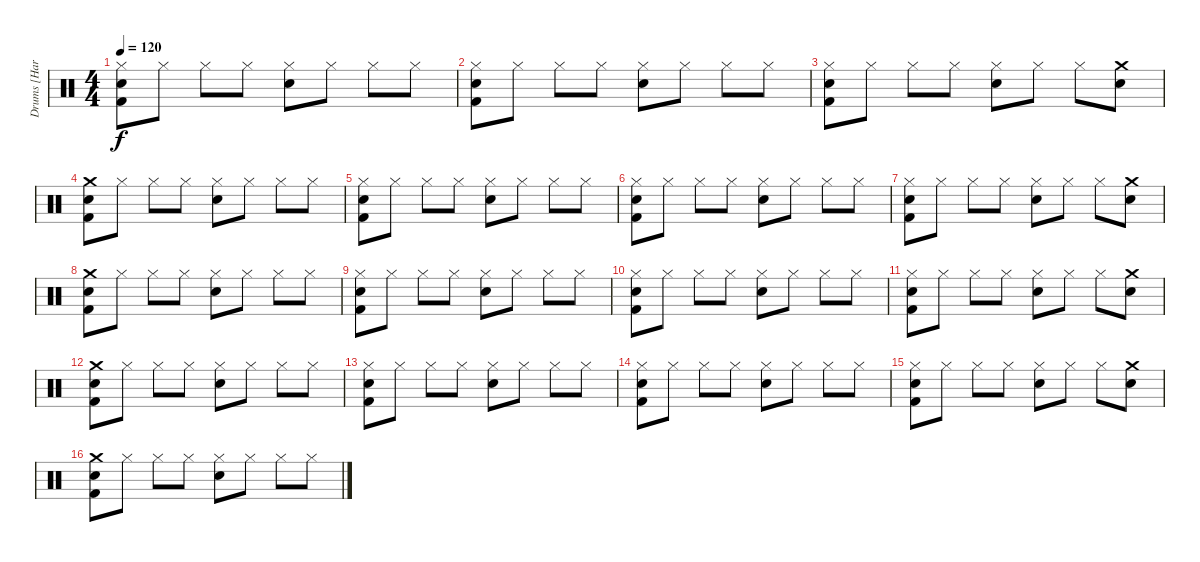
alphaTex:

\track ("Drums [Harry]" "Drums [Har") {instrument percussion}
\staff {score}
\articulation defaults
\ts (4 4)
\tempo 120
\clef neutral
\ks c
("Snare (hit) 2" "Hi-Hat (closed)" "Kick (hit) 2").8{dy f} "Hi-Hat (closed)".8 "Hi-Hat (closed)".8 "Hi-Hat (closed)".8 ("Snare (hit) 2" "Hi-Hat (closed)").8 "Hi-Hat (closed)".8 "Hi-Hat (closed)".8 "Hi-Hat (closed)".8 |
("Snare (hit) 2" "Hi-Hat (closed)" "Kick (hit) 2").8 "Hi-Hat (closed)".8 "Hi-Hat (closed)".8 "Hi-Hat (closed)".8 ("Snare (hit) 2" "Hi-Hat (closed)").8 "Hi-Hat (closed)".8 "Hi-Hat (closed)".8 "Hi-Hat (closed)".8 |
("Snare (hit) 2" "Hi-Hat (closed)" "Kick (hit) 2").8 "Hi-Hat (closed)".8 "Hi-Hat (closed)".8 "Hi-Hat (closed)".8 ("Snare (hit) 2" "Hi-Hat (closed)").8 "Hi-Hat (closed)".8 "Hi-Hat (closed)".8 ("Crash medium (hit)" "Snare (hit) 2").8 |
("Crash medium (hit)" "Snare (hit) 2" "Kick (hit) 2").8 "Hi-Hat (closed)".8 "Hi-Hat (closed)".8 "Hi-Hat (closed)".8 ("Snare (hit) 2" "Hi-Hat (closed)").8 "Hi-Hat (closed)".8 "Hi-Hat (closed)".8 "Hi-Hat (closed)".8 |
("Snare (hit) 2" "Hi-Hat (closed)" "Kick (hit) 2").8 "Hi-Hat (closed)".8 "Hi-Hat (closed)".8 "Hi-Hat (closed)".8 ("Snare (hit) 2" "Hi-Hat (closed)").8 "Hi-Hat (closed)".8 "Hi-Hat (closed)".8 "Hi-Hat (closed)".8 |
("Snare (hit) 2" "Hi-Hat (closed)" "Kick (hit) 2").8 "Hi-Hat (closed)".8 "Hi-Hat (closed)".8 "Hi-Hat (closed)".8 ("Snare (hit) 2" "Hi-Hat (closed)").8 "Hi-Hat (closed)".8 "Hi-Hat (closed)".8 "Hi-Hat (closed)".8 |
("Snare (hit) 2" "Hi-Hat (closed)" "Kick (hit) 2").8 "Hi-Hat (closed)".8 "Hi-Hat (closed)".8 "Hi-Hat (closed)".8 ("Snare (hit) 2" "Hi-Hat (closed)").8 "Hi-Hat (closed)".8 "Hi-Hat (closed)".8 ("Crash medium (hit)" "Snare (hit) 2").8 |
("Crash medium (hit)" "Snare (hit) 2" "Kick (hit) 2").8 "Hi-Hat (closed)".8 "Hi-Hat (closed)".8 "Hi-Hat (closed)".8 ("Snare (hit) 2" "Hi-Hat (closed)").8 "Hi-Hat (closed)".8 "Hi-Hat (closed)".8 "Hi-Hat (closed)".8 |
("Snare (hit) 2" "Hi-Hat (closed)" "Kick (hit) 2").8 "Hi-Hat (closed)".8 "Hi-Hat (closed)".8 "Hi-Hat (closed)".8 ("Snare (hit) 2" "Hi-Hat (closed)").8 "Hi-Hat (closed)".8 "Hi-Hat (closed)".8 "Hi-Hat (closed)".8 |
("Snare (hit) 2" "Hi-Hat (closed)" "Kick (hit) 2").8 "Hi-Hat (closed)".8 "Hi-Hat (closed)".8 "Hi-Hat (closed)".8 ("Snare (hit) 2" "Hi-Hat (closed)").8 "Hi-Hat (closed)".8 "Hi-Hat (closed)".8 "Hi-Hat (closed)".8 |
("Snare (hit) 2" "Hi-Hat (closed)" "Kick (hit) 2").8 "Hi-Hat (closed)".8 "Hi-Hat (closed)".8 "Hi-Hat (closed)".8 ("Snare (hit) 2" "Hi-Hat (closed)").8 "Hi-Hat (closed)".8 "Hi-Hat (closed)".8 ("Crash medium (hit)" "Snare (hit) 2").8 |
("Crash medium (hit)" "Snare (hit) 2" "Kick (hit) 2").8 "Hi-Hat (closed)".8 "Hi-Hat (closed)".8 "Hi-Hat (closed)".8 ("Snare (hit) 2" "Hi-Hat (closed)").8 "Hi-Hat (closed)".8 "Hi-Hat (closed)".8 "Hi-Hat (closed)".8 |
("Snare (hit) 2" "Hi-Hat (closed)" "Kick (hit) 2").8 "Hi-Hat (closed)".8 "Hi-Hat (closed)".8 "Hi-Hat (closed)".8 ("Snare (hit) 2" "Hi-Hat (closed)").8 "Hi-Hat (closed)".8 "Hi-Hat (closed)".8 "Hi-Hat (closed)".8 |
("Snare (hit) 2" "Hi-Hat (closed)" "Kick (hit) 2").8 "Hi-Hat (closed)".8 "Hi-Hat (closed)".8 "Hi-Hat (closed)".8 ("Snare (hit) 2" "Hi-Hat (closed)").8 "Hi-Hat (closed)".8 "Hi-Hat (closed)".8 "Hi-Hat (closed)".8 |
("Snare (hit) 2" "Hi-Hat (closed)" "Kick (hit) 2").8 "Hi-Hat (closed)".8 "Hi-Hat (closed)".8 "Hi-Hat (closed)".8 ("Snare (hit) 2" "Hi-Hat (closed)").8 "Hi-Hat (closed)".8 "Hi-Hat (closed)".8 ("Crash medium (hit)" "Snare (hit) 2").8 |
("Crash medium (hit)" "Snare (hit) 2" "Kick (hit) 2").8 "Hi-Hat (closed)".8 "Hi-Hat (closed)".8 "Hi-Hat (closed)".8 ("Snare (hit) 2" "Hi-Hat (closed)").8 "Hi-Hat (closed)".8 "Hi-Hat (closed)".8 "Hi-Hat (closed)".8
